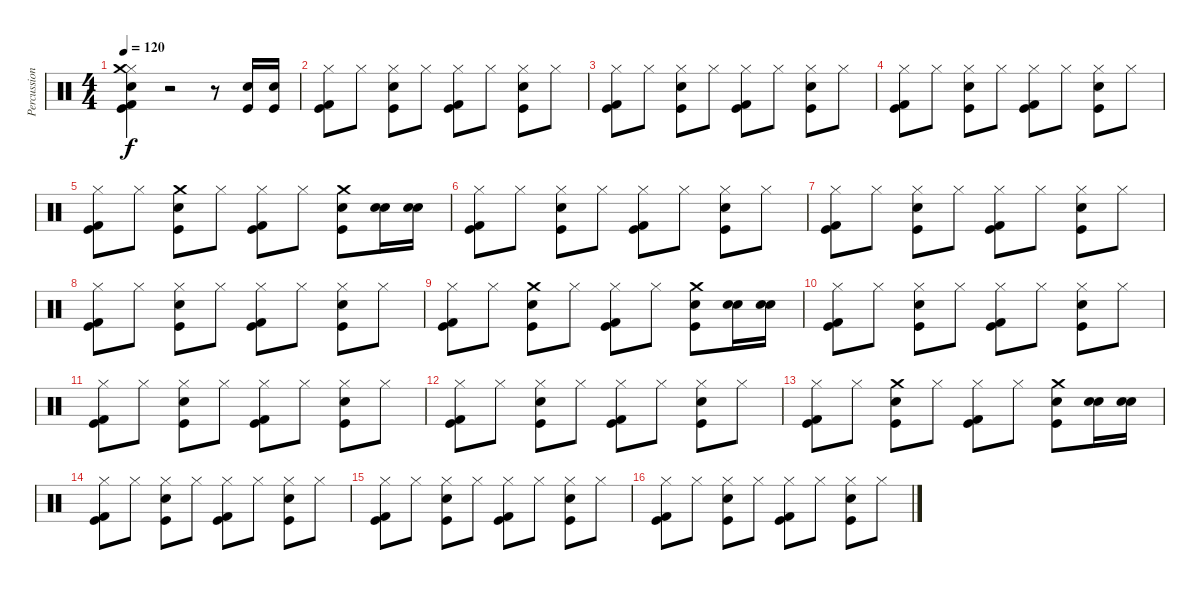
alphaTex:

\track ("Percussion" "Percussion") {instrument percussion}
\staff {score}
\articulation defaults
\ts (4 4)
\tempo 120
\clef neutral
\ks c
("Hi-Hat (closed)" "Kick (hit)" "Kick (hit) 2" "Snare (hit) 2" "Crash medium (hit)").4{dy f} r.2 r.8 ("Kick (hit)" "Snare (hit) 2").16 ("Kick (hit)" "Snare (hit) 2").16 |
("Hi-Hat (closed)" "Kick (hit)" "Kick (hit) 2").8 "Hi-Hat (closed)".8 ("Hi-Hat (closed)" "Kick (hit)" "Snare (hit) 2").8 "Hi-Hat (closed)".8 ("Hi-Hat (closed)" "Kick (hit)" "Kick (hit) 2").8 "Hi-Hat (closed)".8 ("Hi-Hat (closed)" "Kick (hit)" "Snare (hit) 2").8 "Hi-Hat (closed)".8 |
("Hi-Hat (closed)" "Kick (hit)" "Kick (hit) 2").8 "Hi-Hat (closed)".8 ("Hi-Hat (closed)" "Kick (hit)" "Snare (hit) 2").8 "Hi-Hat (closed)".8 ("Hi-Hat (closed)" "Kick (hit)" "Kick (hit) 2").8 "Hi-Hat (closed)".8 ("Hi-Hat (closed)" "Kick (hit)" "Snare (hit) 2").8 "Hi-Hat (closed)".8 |
("Hi-Hat (closed)" "Kick (hit)" "Kick (hit) 2").8 "Hi-Hat (closed)".8 ("Hi-Hat (closed)" "Kick (hit)" "Snare (hit) 2").8 "Hi-Hat (closed)".8 ("Hi-Hat (closed)" "Kick (hit)" "Kick (hit) 2").8 "Hi-Hat (closed)".8 ("Hi-Hat (closed)" "Kick (hit)" "Snare (hit) 2").8 "Hi-Hat (closed)".8 |
("Hi-Hat (closed)" "Kick (hit)" "Kick (hit) 2").8 "Hi-Hat (closed)".8 ("Kick (hit)" "Snare (hit) 2" "Crash medium (hit)").8 "Hi-Hat (closed)".8 ("Hi-Hat (closed)" "Kick (hit)" "Kick (hit) 2").8 "Hi-Hat (closed)".8 ("Kick (hit)" "Snare (hit) 2" "Crash medium (hit)").8 ("Snare (hit) 2" "Electric Snare (hit)").16 ("Snare (hit) 2" "Electric Snare (hit)").16 |
("Hi-Hat (closed)" "Kick (hit)" "Kick (hit) 2").8 "Hi-Hat (closed)".8 ("Hi-Hat (closed)" "Kick (hit)" "Snare (hit) 2").8 "Hi-Hat (closed)".8 ("Hi-Hat (closed)" "Kick (hit)" "Kick (hit) 2").8 "Hi-Hat (closed)".8 ("Hi-Hat (closed)" "Kick (hit)" "Snare (hit) 2").8 "Hi-Hat (closed)".8 |
("Hi-Hat (closed)" "Kick (hit)" "Kick (hit) 2").8 "Hi-Hat (closed)".8 ("Hi-Hat (closed)" "Kick (hit)" "Snare (hit) 2").8 "Hi-Hat (closed)".8 ("Hi-Hat (closed)" "Kick (hit)" "Kick (hit) 2").8 "Hi-Hat (closed)".8 ("Hi-Hat (closed)" "Kick (hit)" "Snare (hit) 2").8 "Hi-Hat (closed)".8 |
("Hi-Hat (closed)" "Kick (hit)" "Kick (hit) 2").8 "Hi-Hat (closed)".8 ("Hi-Hat (closed)" "Kick (hit)" "Snare (hit) 2").8 "Hi-Hat (closed)".8 ("Hi-Hat (closed)" "Kick (hit)" "Kick (hit) 2").8 "Hi-Hat (closed)".8 ("Hi-Hat (closed)" "Kick (hit)" "Snare (hit) 2").8 "Hi-Hat (closed)".8 |
("Hi-Hat (closed)" "Kick (hit)" "Kick (hit) 2").8 "Hi-Hat (closed)".8 ("Kick (hit)" "Snare (hit) 2" "Crash medium (hit)").8 "Hi-Hat (closed)".8 ("Hi-Hat (closed)" "Kick (hit)" "Kick (hit) 2").8 "Hi-Hat (closed)".8 ("Kick (hit)" "Snare (hit) 2" "Crash medium (hit)").8 ("Snare (hit) 2" "Electric Snare (hit)").16 ("Snare (hit) 2" "Electric Snare (hit)").16 |
("Hi-Hat (closed)" "Kick (hit)" "Kick (hit) 2").8 "Hi-Hat (closed)".8 ("Hi-Hat (closed)" "Kick (hit)" "Snare (hit) 2").8 "Hi-Hat (closed)".8 ("Hi-Hat (closed)" "Kick (hit)" "Kick (hit) 2").8 "Hi-Hat (closed)".8 ("Hi-Hat (closed)" "Kick (hit)" "Snare (hit) 2").8 "Hi-Hat (closed)".8 |
("Hi-Hat (closed)" "Kick (hit)" "Kick (hit) 2").8 "Hi-Hat (closed)".8 ("Hi-Hat (closed)" "Kick (hit)" "Snare (hit) 2").8 "Hi-Hat (closed)".8 ("Hi-Hat (closed)" "Kick (hit)" "Kick (hit) 2").8 "Hi-Hat (closed)".8 ("Hi-Hat (closed)" "Kick (hit)" "Snare (hit) 2").8 "Hi-Hat (closed)".8 |
("Hi-Hat (closed)" "Kick (hit)" "Kick (hit) 2").8 "Hi-Hat (closed)".8 ("Hi-Hat (closed)" "Kick (hit)" "Snare (hit) 2").8 "Hi-Hat (closed)".8 ("Hi-Hat (closed)" "Kick (hit)" "Kick (hit) 2").8 "Hi-Hat (closed)".8 ("Hi-Hat (closed)" "Kick (hit)" "Snare (hit) 2").8 "Hi-Hat (closed)".8 |
("Hi-Hat (closed)" "Kick (hit)" "Kick (hit) 2").8 "Hi-Hat (closed)".8 ("Kick (hit)" "Snare (hit) 2" "Crash medium (hit)").8 "Hi-Hat (closed)".8 ("Hi-Hat (closed)" "Kick (hit)" "Kick (hit) 2").8 "Hi-Hat (closed)".8 ("Kick (hit)" "Snare (hit) 2" "Crash medium (hit)").8 ("Snare (hit) 2" "Electric Snare (hit)").16 ("Snare (hit) 2" "Electric Snare (hit)").16 |
("Hi-Hat (closed)" "Kick (hit)" "Kick (hit) 2").8 "Hi-Hat (closed)".8 ("Hi-Hat (closed)" "Kick (hit)" "Snare (hit) 2").8 "Hi-Hat (closed)".8 ("Hi-Hat (closed)" "Kick (hit)" "Kick (hit) 2").8 "Hi-Hat (closed)".8 ("Hi-Hat (closed)" "Kick (hit)" "Snare (hit) 2").8 "Hi-Hat (closed)".8 |
("Hi-Hat (closed)" "Kick (hit)" "Kick (hit) 2").8 "Hi-Hat (closed)".8 ("Hi-Hat (closed)" "Kick (hit)" "Snare (hit) 2").8 "Hi-Hat (closed)".8 ("Hi-Hat (closed)" "Kick (hit)" "Kick (hit) 2").8 "Hi-Hat (closed)".8 ("Hi-Hat (closed)" "Kick (hit)" "Snare (hit) 2").8 "Hi-Hat (closed)".8 |
("Hi-Hat (closed)" "Kick (hit)" "Kick (hit) 2").8 "Hi-Hat (closed)".8 ("Hi-Hat (closed)" "Kick (hit)" "Snare (hit) 2").8 "Hi-Hat (closed)".8 ("Hi-Hat (closed)" "Kick (hit)" "Kick (hit) 2").8 "Hi-Hat (closed)".8 ("Hi-Hat (closed)" "Kick (hit)" "Snare (hit) 2").8 "Hi-Hat (closed)".8
